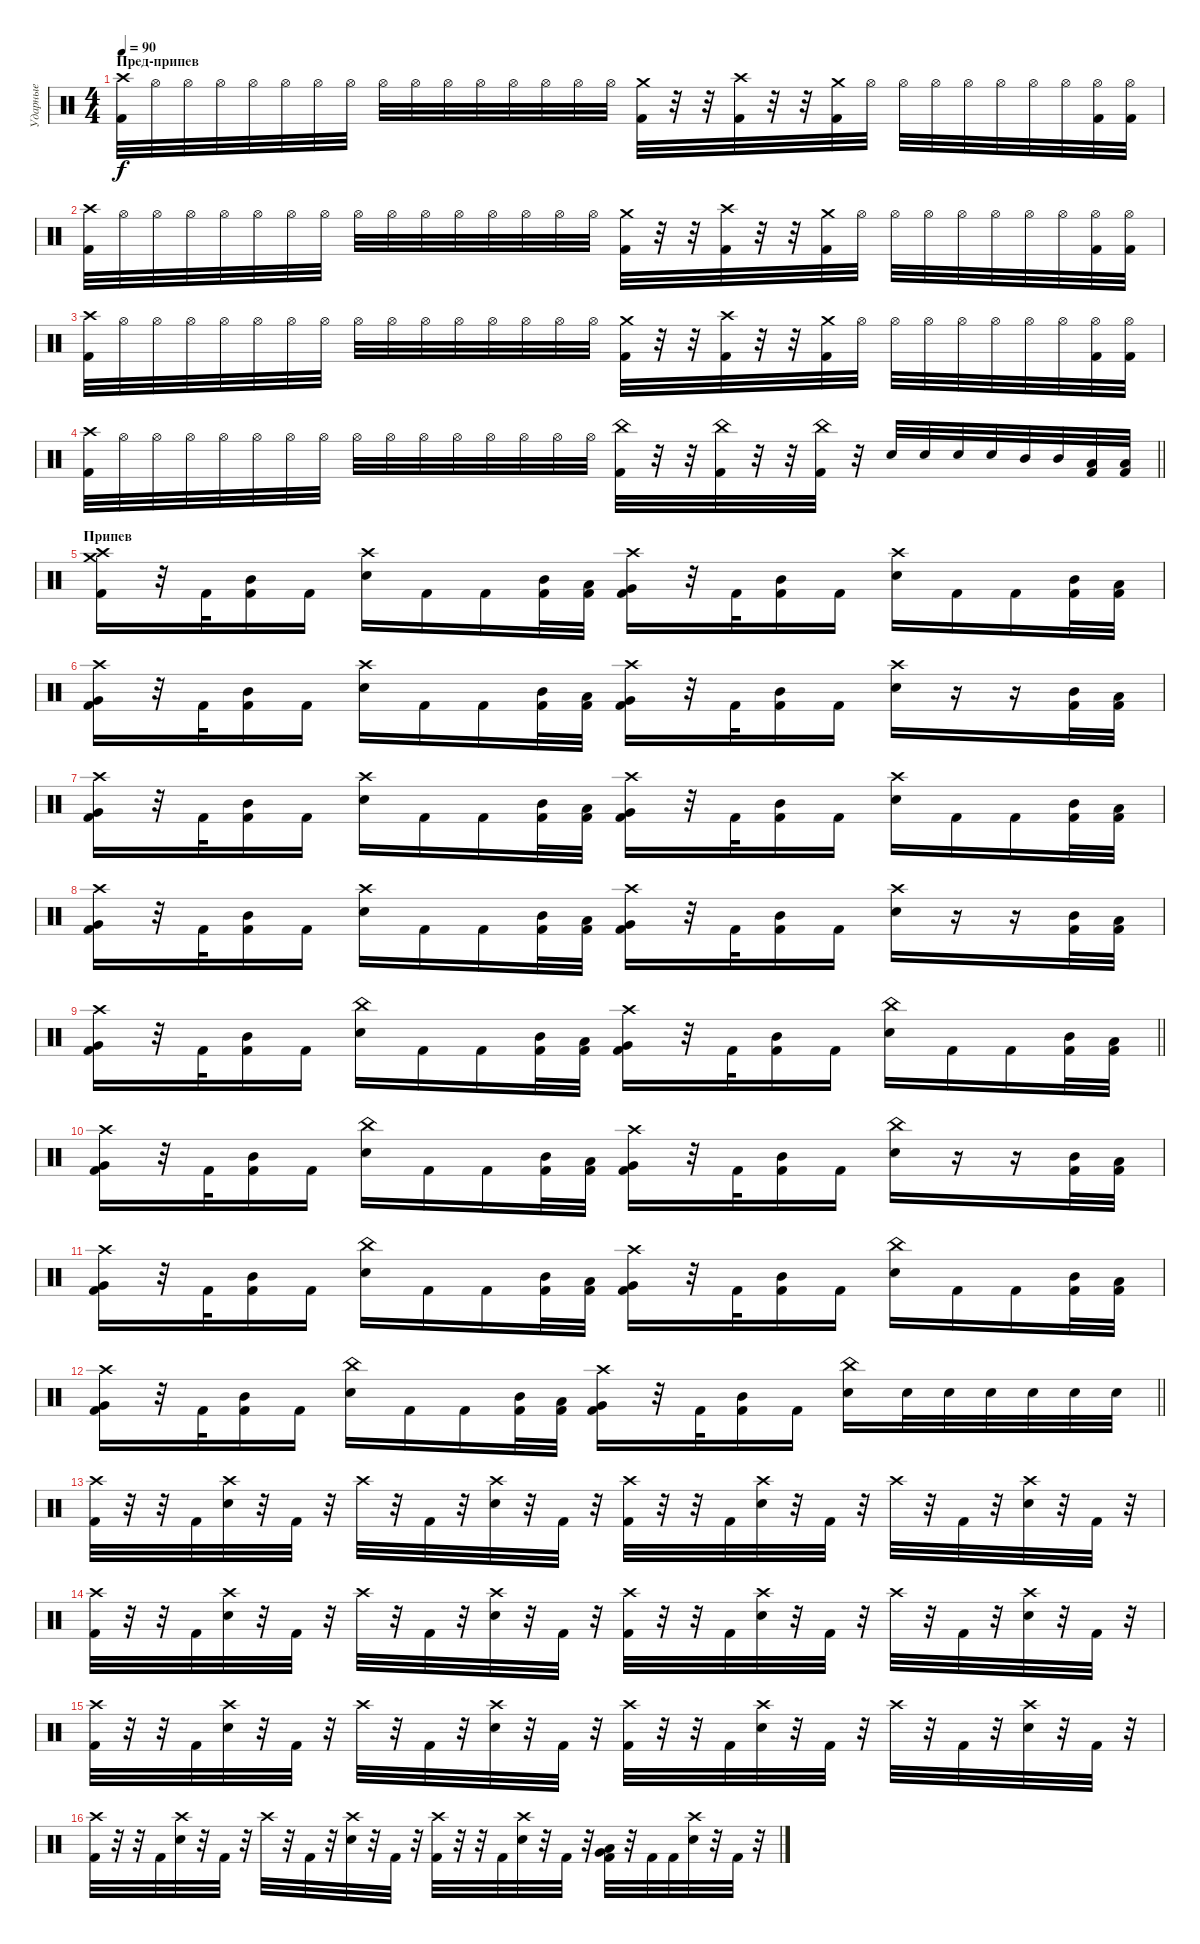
\track ("Ударные" "Ударные") {instrument percussion}
\staff {score}
\articulation defaults
\ts (4 4)
\section ("" "Пред-припев")
\tempo 90
\clef neutral
\ks c
("Crash high (hit)" "Kick (hit) 2").32{dy f} "Hi-Hat (open)".32 "Hi-Hat (open)".32 "Hi-Hat (open)".32 "Hi-Hat (open)".32 "Hi-Hat (open)".32 "Hi-Hat (open)".32 "Hi-Hat (open)".32 "Hi-Hat (open)".32 "Hi-Hat (open)".32 "Hi-Hat (open)".32 "Hi-Hat (open)".32 "Hi-Hat (open)".32 "Hi-Hat (open)".32 "Hi-Hat (open)".32 "Hi-Hat (open)".32 ("Crash medium (hit)" "Kick (hit) 2").32 r.32 r.32 ("Crash high (hit)" "Kick (hit) 2").32 r.32 r.32 ("Crash medium (hit)" "Kick (hit) 2").32 "Hi-Hat (open)".32 "Hi-Hat (open)".32 "Hi-Hat (open)".32 "Hi-Hat (open)".32 "Hi-Hat (open)".32 "Hi-Hat (open)".32 "Hi-Hat (open)".32 ("Hi-Hat (open)" "Kick (hit) 2").32 ("Hi-Hat (open)" "Kick (hit) 2").32 |
("Crash high (hit)" "Kick (hit) 2").32 "Hi-Hat (open)".32 "Hi-Hat (open)".32 "Hi-Hat (open)".32 "Hi-Hat (open)".32 "Hi-Hat (open)".32 "Hi-Hat (open)".32 "Hi-Hat (open)".32 "Hi-Hat (open)".32 "Hi-Hat (open)".32 "Hi-Hat (open)".32 "Hi-Hat (open)".32 "Hi-Hat (open)".32 "Hi-Hat (open)".32 "Hi-Hat (open)".32 "Hi-Hat (open)".32 ("Crash medium (hit)" "Kick (hit) 2").32 r.32 r.32 ("Crash high (hit)" "Kick (hit) 2").32 r.32 r.32 ("Crash medium (hit)" "Kick (hit) 2").32 "Hi-Hat (open)".32 "Hi-Hat (open)".32 "Hi-Hat (open)".32 "Hi-Hat (open)".32 "Hi-Hat (open)".32 "Hi-Hat (open)".32 "Hi-Hat (open)".32 ("Hi-Hat (open)" "Kick (hit) 2").32 ("Hi-Hat (open)" "Kick (hit) 2").32 |
("Crash high (hit)" "Kick (hit) 2").32 "Hi-Hat (open)".32 "Hi-Hat (open)".32 "Hi-Hat (open)".32 "Hi-Hat (open)".32 "Hi-Hat (open)".32 "Hi-Hat (open)".32 "Hi-Hat (open)".32 "Hi-Hat (open)".32 "Hi-Hat (open)".32 "Hi-Hat (open)".32 "Hi-Hat (open)".32 "Hi-Hat (open)".32 "Hi-Hat (open)".32 "Hi-Hat (open)".32 "Hi-Hat (open)".32 ("Crash medium (hit)" "Kick (hit) 2").32 r.32 r.32 ("Crash high (hit)" "Kick (hit) 2").32 r.32 r.32 ("Crash medium (hit)" "Kick (hit) 2").32 "Hi-Hat (open)".32 "Hi-Hat (open)".32 "Hi-Hat (open)".32 "Hi-Hat (open)".32 "Hi-Hat (open)".32 "Hi-Hat (open)".32 "Hi-Hat (open)".32 ("Hi-Hat (open)" "Kick (hit) 2").32 ("Hi-Hat (open)" "Kick (hit) 2").32 |
\barLineRight lightlight
("Crash high (hit)" "Kick (hit) 2").32 "Hi-Hat (open)".32 "Hi-Hat (open)".32 "Hi-Hat (open)".32 "Hi-Hat (open)".32 "Hi-Hat (open)".32 "Hi-Hat (open)".32 "Hi-Hat (open)".32 "Hi-Hat (open)".32 "Hi-Hat (open)".32 "Hi-Hat (open)".32 "Hi-Hat (open)".32 "Hi-Hat (open)".32 "Hi-Hat (open)".32 "Hi-Hat (open)".32 "Hi-Hat (open)".32 ("China (hit)" "Kick (hit) 2").32 r.32 r.32 ("China (hit)" "Kick (hit) 2").32 r.32 r.32 ("China (hit)" "Kick (hit) 2").32 r.32 "Electric Snare (hit)".32 "Electric Snare (hit)".32 "Electric Snare (hit)".32 "Electric Snare (hit)".32 "Mid Tom (hit)".32 "Mid Tom (hit)".32 ("Low Tom (hit)" "Kick (hit) 2").32 ("Low Tom (hit)" "Kick (hit) 2").32 |
\section ("" "Припев")
("Crash medium (hit)" "Crash high (hit)" "Kick (hit) 2").16 r.32 "Kick (hit) 2".32 ("Mid Tom (hit)" "Kick (hit) 2").16 "Kick (hit) 2".16 ("Crash high (hit)" "Electric Snare (hit)").16 "Kick (hit) 2".16 "Kick (hit) 2".16 ("Mid Tom (hit)" "Kick (hit) 2").32 ("Low Tom (hit)" "Kick (hit) 2").32 ("Crash high (hit)" "Very Low Tom (hit)" "Kick (hit) 2").16 r.32 "Kick (hit) 2".32 ("Mid Tom (hit)" "Kick (hit) 2").16 "Kick (hit) 2".16 ("Crash high (hit)" "Electric Snare (hit)").16 "Kick (hit) 2".16 "Kick (hit) 2".16 ("Mid Tom (hit)" "Kick (hit) 2").32 ("Low Tom (hit)" "Kick (hit) 2").32 |
("Crash high (hit)" "Very Low Tom (hit)" "Kick (hit) 2").16 r.32 "Kick (hit) 2".32 ("Mid Tom (hit)" "Kick (hit) 2").16 "Kick (hit) 2".16 ("Crash high (hit)" "Electric Snare (hit)").16 "Kick (hit) 2".16 "Kick (hit) 2".16 ("Mid Tom (hit)" "Kick (hit) 2").32 ("Low Tom (hit)" "Kick (hit) 2").32 ("Crash high (hit)" "Very Low Tom (hit)" "Kick (hit) 2").16 r.32 "Kick (hit) 2".32 ("Mid Tom (hit)" "Kick (hit) 2").16 "Kick (hit) 2".16 ("Crash high (hit)" "Electric Snare (hit)").16 r.16 r.16 ("Mid Tom (hit)" "Kick (hit) 2").32 ("Low Tom (hit)" "Kick (hit) 2").32 |
("Crash high (hit)" "Very Low Tom (hit)" "Kick (hit) 2").16 r.32 "Kick (hit) 2".32 ("Mid Tom (hit)" "Kick (hit) 2").16 "Kick (hit) 2".16 ("Crash high (hit)" "Electric Snare (hit)").16 "Kick (hit) 2".16 "Kick (hit) 2".16 ("Mid Tom (hit)" "Kick (hit) 2").32 ("Low Tom (hit)" "Kick (hit) 2").32 ("Crash high (hit)" "Very Low Tom (hit)" "Kick (hit) 2").16 r.32 "Kick (hit) 2".32 ("Mid Tom (hit)" "Kick (hit) 2").16 "Kick (hit) 2".16 ("Crash high (hit)" "Electric Snare (hit)").16 "Kick (hit) 2".16 "Kick (hit) 2".16 ("Mid Tom (hit)" "Kick (hit) 2").32 ("Low Tom (hit)" "Kick (hit) 2").32 |
("Crash high (hit)" "Very Low Tom (hit)" "Kick (hit) 2").16 r.32 "Kick (hit) 2".32 ("Mid Tom (hit)" "Kick (hit) 2").16 "Kick (hit) 2".16 ("Crash high (hit)" "Electric Snare (hit)").16 "Kick (hit) 2".16 "Kick (hit) 2".16 ("Mid Tom (hit)" "Kick (hit) 2").32 ("Low Tom (hit)" "Kick (hit) 2").32 ("Crash high (hit)" "Very Low Tom (hit)" "Kick (hit) 2").16 r.32 "Kick (hit) 2".32 ("Mid Tom (hit)" "Kick (hit) 2").16 "Kick (hit) 2".16 ("Crash high (hit)" "Electric Snare (hit)").16 r.16 r.16 ("Mid Tom (hit)" "Kick (hit) 2").32 ("Low Tom (hit)" "Kick (hit) 2").32 |
\barLineRight lightlight
("Crash high (hit)" "Very Low Tom (hit)" "Kick (hit) 2").16 r.32 "Kick (hit) 2".32 ("Mid Tom (hit)" "Kick (hit) 2").16 "Kick (hit) 2".16 ("China (hit)" "Electric Snare (hit)").16 "Kick (hit) 2".16 "Kick (hit) 2".16 ("Mid Tom (hit)" "Kick (hit) 2").32 ("Low Tom (hit)" "Kick (hit) 2").32 ("Crash high (hit)" "Very Low Tom (hit)" "Kick (hit) 2").16 r.32 "Kick (hit) 2".32 ("Mid Tom (hit)" "Kick (hit) 2").16 "Kick (hit) 2".16 ("China (hit)" "Electric Snare (hit)").16 "Kick (hit) 2".16 "Kick (hit) 2".16 ("Mid Tom (hit)" "Kick (hit) 2").32 ("Low Tom (hit)" "Kick (hit) 2").32 |
("Crash high (hit)" "Very Low Tom (hit)" "Kick (hit) 2").16 r.32 "Kick (hit) 2".32 ("Mid Tom (hit)" "Kick (hit) 2").16 "Kick (hit) 2".16 ("China (hit)" "Electric Snare (hit)").16 "Kick (hit) 2".16 "Kick (hit) 2".16 ("Mid Tom (hit)" "Kick (hit) 2").32 ("Low Tom (hit)" "Kick (hit) 2").32 ("Crash high (hit)" "Very Low Tom (hit)" "Kick (hit) 2").16 r.32 "Kick (hit) 2".32 ("Mid Tom (hit)" "Kick (hit) 2").16 "Kick (hit) 2".16 ("China (hit)" "Electric Snare (hit)").16 r.16 r.16 ("Mid Tom (hit)" "Kick (hit) 2").32 ("Low Tom (hit)" "Kick (hit) 2").32 |
("Crash high (hit)" "Very Low Tom (hit)" "Kick (hit) 2").16 r.32 "Kick (hit) 2".32 ("Mid Tom (hit)" "Kick (hit) 2").16 "Kick (hit) 2".16 ("China (hit)" "Electric Snare (hit)").16 "Kick (hit) 2".16 "Kick (hit) 2".16 ("Mid Tom (hit)" "Kick (hit) 2").32 ("Low Tom (hit)" "Kick (hit) 2").32 ("Crash high (hit)" "Very Low Tom (hit)" "Kick (hit) 2").16 r.32 "Kick (hit) 2".32 ("Mid Tom (hit)" "Kick (hit) 2").16 "Kick (hit) 2".16 ("China (hit)" "Electric Snare (hit)").16 "Kick (hit) 2".16 "Kick (hit) 2".16 ("Mid Tom (hit)" "Kick (hit) 2").32 ("Low Tom (hit)" "Kick (hit) 2").32 |
\barLineRight lightlight
("Crash high (hit)" "Very Low Tom (hit)" "Kick (hit) 2").16 r.32 "Kick (hit) 2".32 ("Mid Tom (hit)" "Kick (hit) 2").16 "Kick (hit) 2".16 ("China (hit)" "Electric Snare (hit)").16 "Kick (hit) 2".16 "Kick (hit) 2".16 ("Mid Tom (hit)" "Kick (hit) 2").32 ("Low Tom (hit)" "Kick (hit) 2").32 ("Crash high (hit)" "Very Low Tom (hit)" "Kick (hit) 2").16 r.32 "Kick (hit) 2".32 ("Mid Tom (hit)" "Kick (hit) 2").16 "Kick (hit) 2".16 ("China (hit)" "Electric Snare (hit)").16 "Electric Snare (hit)".32 "Electric Snare (hit)".32 "Electric Snare (hit)".32 "Electric Snare (hit)".32 "Electric Snare (hit)".32 "Electric Snare (hit)".32 |
("Crash high (hit)" "Kick (hit) 2").32 r.32 r.32 "Kick (hit) 2".32 ("Crash high (hit)" "Electric Snare (hit)").32 r.32 "Kick (hit) 2".32 r.32 "Crash high (hit)".32 r.32 "Kick (hit) 2".32 r.32 ("Crash high (hit)" "Electric Snare (hit)").32 r.32 "Kick (hit) 2".32 r.32 ("Crash high (hit)" "Kick (hit) 2").32 r.32 r.32 "Kick (hit) 2".32 ("Crash high (hit)" "Electric Snare (hit)").32 r.32 "Kick (hit) 2".32 r.32 "Crash high (hit)".32 r.32 "Kick (hit) 2".32 r.32 ("Crash high (hit)" "Electric Snare (hit)").32 r.32 "Kick (hit) 2".32 r.32 |
("Crash high (hit)" "Kick (hit) 2").32 r.32 r.32 "Kick (hit) 2".32 ("Crash high (hit)" "Electric Snare (hit)").32 r.32 "Kick (hit) 2".32 r.32 "Crash high (hit)".32 r.32 "Kick (hit) 2".32 r.32 ("Crash high (hit)" "Electric Snare (hit)").32 r.32 "Kick (hit) 2".32 r.32 ("Crash high (hit)" "Kick (hit) 2").32 r.32 r.32 "Kick (hit) 2".32 ("Crash high (hit)" "Electric Snare (hit)").32 r.32 "Kick (hit) 2".32 r.32 "Crash high (hit)".32 r.32 "Kick (hit) 2".32 r.32 ("Crash high (hit)" "Electric Snare (hit)").32 r.32 "Kick (hit) 2".32 r.32 |
("Crash high (hit)" "Kick (hit) 2").32 r.32 r.32 "Kick (hit) 2".32 ("Crash high (hit)" "Electric Snare (hit)").32 r.32 "Kick (hit) 2".32 r.32 "Crash high (hit)".32 r.32 "Kick (hit) 2".32 r.32 ("Crash high (hit)" "Electric Snare (hit)").32 r.32 "Kick (hit) 2".32 r.32 ("Crash high (hit)" "Kick (hit) 2").32 r.32 r.32 "Kick (hit) 2".32 ("Crash high (hit)" "Electric Snare (hit)").32 r.32 "Kick (hit) 2".32 r.32 "Crash high (hit)".32 r.32 "Kick (hit) 2".32 r.32 ("Crash high (hit)" "Electric Snare (hit)").32 r.32 "Kick (hit) 2".32 r.32 |
("Crash high (hit)" "Kick (hit) 2").32 r.32 r.32 "Kick (hit) 2".32 ("Crash high (hit)" "Electric Snare (hit)").32 r.32 "Kick (hit) 2".32 r.32 "Crash high (hit)".32 r.32 "Kick (hit) 2".32 r.32 ("Crash high (hit)" "Electric Snare (hit)").32 r.32 "Kick (hit) 2".32 r.32 ("Crash high (hit)" "Kick (hit) 2").32 r.32 r.32 "Kick (hit) 2".32 ("Crash high (hit)" "Electric Snare (hit)").32 r.32 "Kick (hit) 2".32 r.32 ("Low Tom (hit)" "Very Low Tom (hit)" "Kick (hit) 2").32 r.32 "Kick (hit) 2".32 "Kick (hit) 2".32 ("Crash high (hit)" "Electric Snare (hit)").32 r.32 "Kick (hit) 2".32 r.32
